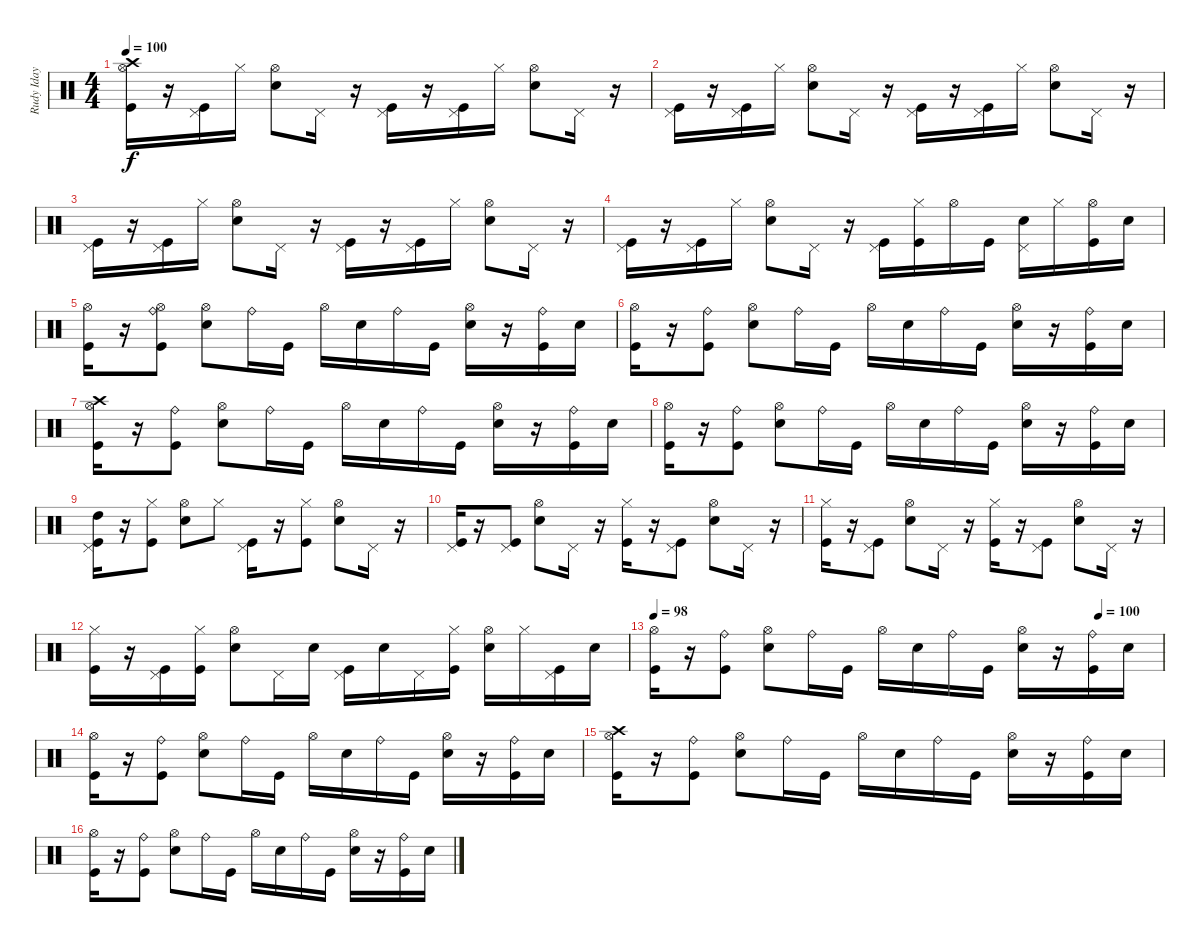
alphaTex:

\track ("Rudy Iday" "Rudy Iday") {instrument percussion}
\staff {score}
\articulation defaults
\ts (4 4)
\tempo 100
\clef neutral
\ks c
("Hi-Hat (open)" "Crash high (hit)" "Kick (hit)").16{dy f} r.16 ("Kick (hit)" "Pedal Hi-Hat (hit)").16 "Hi-Hat (closed)".16 ("Electric Snare (hit)" "Hi-Hat (open)").8 "Pedal Hi-Hat (hit)".16 r.16 ("Kick (hit)" "Pedal Hi-Hat (hit)").16 r.16 ("Kick (hit)" "Pedal Hi-Hat (hit)").16 "Hi-Hat (closed)".16 ("Electric Snare (hit)" "Hi-Hat (open)").8 "Pedal Hi-Hat (hit)".16 r.16 |
("Kick (hit)" "Pedal Hi-Hat (hit)").16 r.16 ("Kick (hit)" "Pedal Hi-Hat (hit)").16 "Hi-Hat (closed)".16 ("Electric Snare (hit)" "Hi-Hat (open)").8 "Pedal Hi-Hat (hit)".16 r.16 ("Pedal Hi-Hat (hit)" "Kick (hit)").16 r.16 ("Pedal Hi-Hat (hit)" "Kick (hit)").16 "Hi-Hat (closed)".16 ("Electric Snare (hit)" "Hi-Hat (open)").8 "Pedal Hi-Hat (hit)".16 r.16 |
("Pedal Hi-Hat (hit)" "Kick (hit)").16 r.16 ("Pedal Hi-Hat (hit)" "Kick (hit)").16 "Hi-Hat (closed)".16 ("Electric Snare (hit)" "Hi-Hat (open)").8 "Pedal Hi-Hat (hit)".16 r.16 ("Pedal Hi-Hat (hit)" "Kick (hit)").16 r.16 ("Pedal Hi-Hat (hit)" "Kick (hit)").16 "Hi-Hat (closed)".16 ("Electric Snare (hit)" "Hi-Hat (open)").8 "Pedal Hi-Hat (hit)".16 r.16 |
("Pedal Hi-Hat (hit)" "Kick (hit)").16 r.16 ("Pedal Hi-Hat (hit)" "Kick (hit)").16 "Hi-Hat (closed)".16 ("Electric Snare (hit)" "Hi-Hat (open)").8 "Pedal Hi-Hat (hit)".16 r.16 ("Pedal Hi-Hat (hit)" "Kick (hit)").16 ("Hi-Hat (closed)" "Kick (hit)").16 "Hi-Hat (open)".16 "Kick (hit)".16 ("Electric Snare (hit)" "Pedal Hi-Hat (hit)").16 "Hi-Hat (closed)".16 ("Hi-Hat (open)" "Kick (hit)").16 "Electric Snare (hit)".16 |
("Hi-Hat (open)" "Kick (hit)").16 r.16 ("Hi-Hat (open)" "Kick (hit)" "Ride (bell)").8 ("Electric Snare (hit)" "Hi-Hat (open)").8 "Ride (bell)".16 "Kick (hit)".16 "Hi-Hat (open)".16 "Electric Snare (hit)".16 "Ride (bell)".16 "Kick (hit)".16 ("Electric Snare (hit)" "Hi-Hat (open)").16 r.16 ("Ride (bell)" "Kick (hit)").16 "Electric Snare (hit)".16 |
("Hi-Hat (open)" "Kick (hit)").16 r.16 ("Ride (bell)" "Kick (hit)").8 ("Electric Snare (hit)" "Hi-Hat (open)").8 "Ride (bell)".16 "Kick (hit)".16 "Hi-Hat (open)".16 "Electric Snare (hit)".16 "Ride (bell)".16 "Kick (hit)".16 ("Electric Snare (hit)" "Hi-Hat (open)").16 r.16 ("Ride (bell)" "Kick (hit)").16 "Electric Snare (hit)".16 |
("Kick (hit)" "Hi-Hat (open)" "Crash high (hit)").16 r.16 ("Ride (bell)" "Kick (hit)").8 ("Electric Snare (hit)" "Hi-Hat (open)").8 "Ride (bell)".16 "Kick (hit)".16 "Hi-Hat (open)".16 "Electric Snare (hit)".16 "Ride (bell)".16 "Kick (hit)".16 ("Electric Snare (hit)" "Hi-Hat (open)").16 r.16 ("Ride (bell)" "Kick (hit)").16 "Electric Snare (hit)".16 |
("Hi-Hat (open)" "Kick (hit)").16 r.16 ("Ride (bell)" "Kick (hit)").8 ("Electric Snare (hit)" "Hi-Hat (open)").8 "Ride (bell)".16 "Kick (hit)".16 "Hi-Hat (open)".16 "Electric Snare (hit)".16 "Ride (bell)".16 "Kick (hit)".16 ("Electric Snare (hit)" "Hi-Hat (open)").16 r.16 ("Kick (hit)" "Ride (bell)").16 "Electric Snare (hit)".16 |
("High Tom (hit)" "Pedal Hi-Hat (hit)" "Kick (hit)").16 r.16 ("Kick (hit)" "Hi-Hat (closed)").8 ("Electric Snare (hit)" "Hi-Hat (open)").8 "Hi-Hat (closed)".8 ("Pedal Hi-Hat (hit)" "Kick (hit)").16 r.16 ("Hi-Hat (closed)" "Kick (hit)").8 ("Electric Snare (hit)" "Hi-Hat (open)").8 "Pedal Hi-Hat (hit)".16 r.16 |
("Pedal Hi-Hat (hit)" "Kick (hit)").16 r.16 ("Pedal Hi-Hat (hit)" "Kick (hit)").8 ("Electric Snare (hit)" "Hi-Hat (open)").8 "Pedal Hi-Hat (hit)".16 r.16 ("Kick (hit)" "Hi-Hat (closed)").16 r.16 ("Kick (hit)" "Pedal Hi-Hat (hit)").8 ("Electric Snare (hit)" "Hi-Hat (open)").8 "Pedal Hi-Hat (hit)".16 r.16 |
("Kick (hit)" "Hi-Hat (closed)").16 r.16 ("Pedal Hi-Hat (hit)" "Kick (hit)").8 ("Electric Snare (hit)" "Hi-Hat (open)").8 "Pedal Hi-Hat (hit)".16 r.16 ("Hi-Hat (closed)" "Kick (hit)").16 r.16 ("Pedal Hi-Hat (hit)" "Kick (hit)").8 ("Electric Snare (hit)" "Hi-Hat (open)").8 "Pedal Hi-Hat (hit)".16 r.16 |
("Hi-Hat (closed)" "Kick (hit)").16 r.16 ("Pedal Hi-Hat (hit)" "Kick (hit)").16 ("Hi-Hat (closed)" "Kick (hit)").16 ("Electric Snare (hit)" "Hi-Hat (open)").8 "Pedal Hi-Hat (hit)".16 "Electric Snare (hit)".16 ("Pedal Hi-Hat (hit)" "Kick (hit)").16 "Electric Snare (hit)".16 "Pedal Hi-Hat (hit)".16 ("Kick (hit)" "Hi-Hat (closed)").16 ("Electric Snare (hit)" "Hi-Hat (open)").16 "Hi-Hat (closed)".16 ("Pedal Hi-Hat (hit)" "Kick (hit)").16 "Electric Snare (hit)".16 |
\tempo 98
\tempo (100 0.875)
("Kick (hit)" "Hi-Hat (open)").16 r.16 ("Ride (bell)" "Kick (hit)").8 ("Electric Snare (hit)" "Hi-Hat (open)").8 "Ride (bell)".16 "Kick (hit)".16 "Hi-Hat (open)".16 "Electric Snare (hit)".16 "Ride (bell)".16 "Kick (hit)".16 ("Electric Snare (hit)" "Hi-Hat (open)").16 r.16 ("Ride (bell)" "Kick (hit)").16 "Electric Snare (hit)".16 |
("Kick (hit)" "Hi-Hat (open)").16 r.16 ("Kick (hit)" "Ride (bell)").8 ("Electric Snare (hit)" "Hi-Hat (open)").8 "Ride (bell)".16 "Kick (hit)".16 "Hi-Hat (open)".16 "Electric Snare (hit)".16 "Ride (bell)".16 "Kick (hit)".16 ("Electric Snare (hit)" "Hi-Hat (open)").16 r.16 ("Ride (bell)" "Kick (hit)").16 "Electric Snare (hit)".16 |
("Hi-Hat (open)" "Crash high (hit)" "Kick (hit)").16 r.16 ("Ride (bell)" "Kick (hit)").8 ("Electric Snare (hit)" "Hi-Hat (open)").8 "Ride (bell)".16 "Kick (hit)".16 "Hi-Hat (open)".16 "Electric Snare (hit)".16 "Ride (bell)".16 "Kick (hit)".16 ("Electric Snare (hit)" "Hi-Hat (open)").16 r.16 ("Kick (hit)" "Ride (bell)").16 "Electric Snare (hit)".16 |
("Kick (hit)" "Hi-Hat (open)").16 r.16 ("Ride (bell)" "Kick (hit)").8 ("Electric Snare (hit)" "Hi-Hat (open)").8 "Ride (bell)".16 "Kick (hit)".16 "Hi-Hat (open)".16 "Electric Snare (hit)".16 "Ride (bell)".16 "Kick (hit)".16 ("Electric Snare (hit)" "Hi-Hat (open)").16 r.16 ("Ride (bell)" "Kick (hit)").16 "Electric Snare (hit)".16
